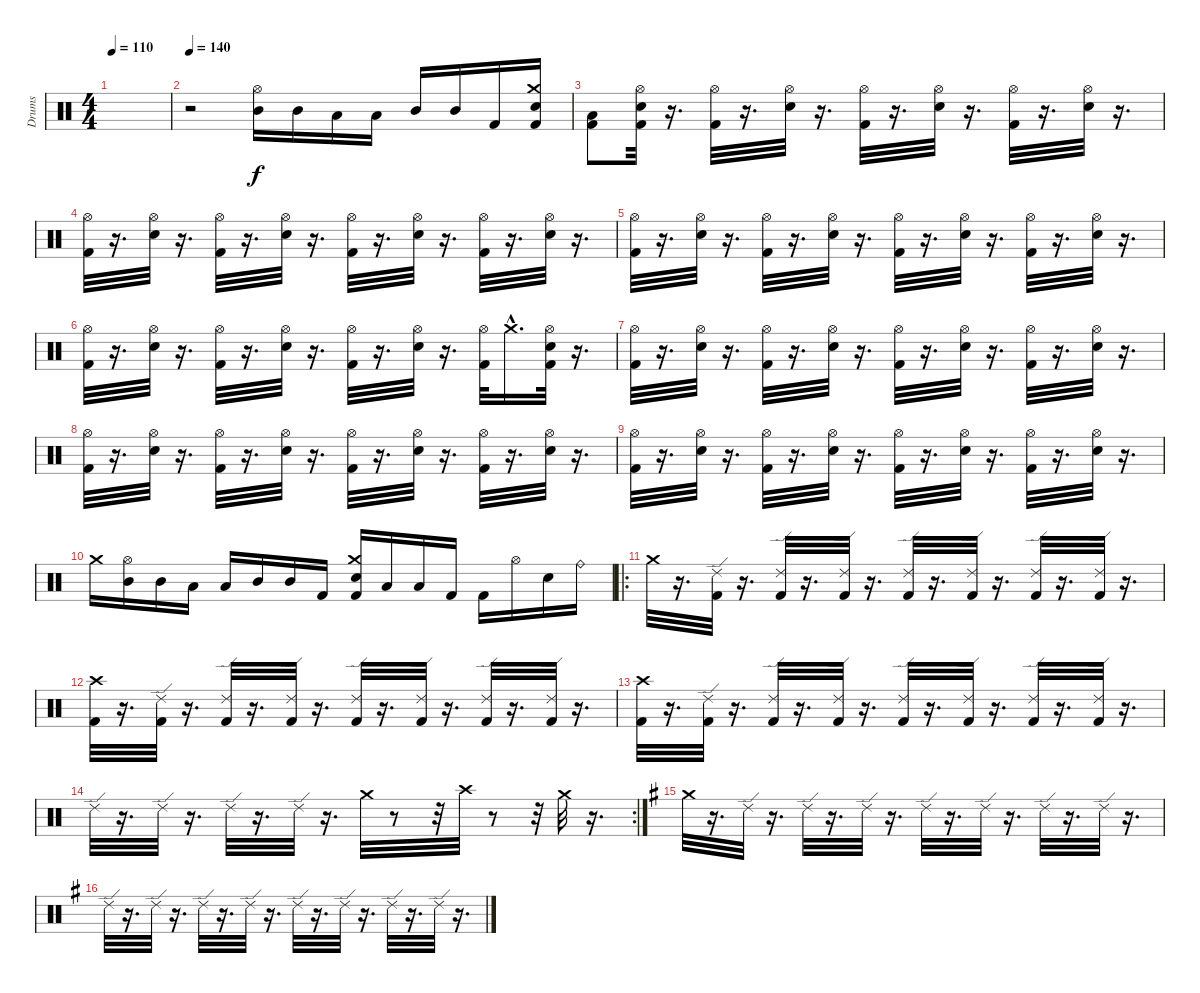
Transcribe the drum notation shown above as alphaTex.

\track ("Drums" "Drums") {instrument percussion}
\staff {score}
\articulation defaults
\ts (4 4)
\tempo 110
\clef neutral
\ks c
|
\tempo 140
r.2 ("Hi-Hat (open)" "Mid Tom (hit)").16 "Mid Tom (hit)".16 "Low Tom (hit)".16 "Low Tom (hit)".16 "Mid Tom (hit)".16 "Mid Tom (hit)".16 "Kick (hit) 2".16 ("Crash medium (hit)" "Electric Snare (hit)" "Kick (hit) 2").16 |
("Kick (hit) 2" "Low Tom (hit)").8 ("Hi-Hat (open)" "Kick (hit) 2" "Electric Snare (hit)").32 r.16{d} ("Hi-Hat (open)" "Kick (hit) 2").32 r.16{d} ("Hi-Hat (open)" "Electric Snare (hit)").32 r.16{d} ("Hi-Hat (open)" "Kick (hit) 2").32 r.16{d} ("Hi-Hat (open)" "Electric Snare (hit)").32 r.16{d} ("Hi-Hat (open)" "Kick (hit) 2").32 r.16{d} ("Hi-Hat (open)" "Electric Snare (hit)").32 r.16{d} |
("Hi-Hat (open)" "Kick (hit) 2").32 r.16{d} ("Hi-Hat (open)" "Electric Snare (hit)").32 r.16{d} ("Hi-Hat (open)" "Kick (hit) 2").32 r.16{d} ("Hi-Hat (open)" "Electric Snare (hit)").32 r.16{d} ("Hi-Hat (open)" "Kick (hit) 2").32 r.16{d} ("Hi-Hat (open)" "Electric Snare (hit)").32 r.16{d} ("Hi-Hat (open)" "Kick (hit) 2").32 r.16{d} ("Hi-Hat (open)" "Electric Snare (hit)").32 r.16{d} |
("Hi-Hat (open)" "Kick (hit) 2").32 r.16{d} ("Hi-Hat (open)" "Electric Snare (hit)").32 r.16{d} ("Hi-Hat (open)" "Kick (hit) 2").32 r.16{d} ("Hi-Hat (open)" "Electric Snare (hit)").32 r.16{d} ("Hi-Hat (open)" "Kick (hit) 2").32 r.16{d} ("Hi-Hat (open)" "Electric Snare (hit)").32 r.16{d} ("Hi-Hat (open)" "Kick (hit) 2").32 r.16{d} ("Hi-Hat (open)" "Electric Snare (hit)").32 r.16{d} |
("Hi-Hat (open)" "Kick (hit) 2").32 r.16{d} ("Hi-Hat (open)" "Electric Snare (hit)").32 r.16{d} ("Hi-Hat (open)" "Kick (hit) 2").32 r.16{d} ("Hi-Hat (open)" "Electric Snare (hit)").32 r.16{d} ("Hi-Hat (open)" "Kick (hit) 2").32 r.16{d} ("Hi-Hat (open)" "Electric Snare (hit)").32 r.16{d} ("Hi-Hat (open)" "Kick (hit) 2").32 "Crash medium (hit)"{hac}.16{d} ("Hi-Hat (open)" "Kick (hit) 2" "Electric Snare (hit)").32 r.16{d} |
("Hi-Hat (open)" "Kick (hit) 2").32 r.16{d} ("Hi-Hat (open)" "Electric Snare (hit)").32 r.16{d} ("Hi-Hat (open)" "Kick (hit) 2").32 r.16{d} ("Hi-Hat (open)" "Electric Snare (hit)").32 r.16{d} ("Hi-Hat (open)" "Kick (hit) 2").32 r.16{d} ("Hi-Hat (open)" "Electric Snare (hit)").32 r.16{d} ("Hi-Hat (open)" "Kick (hit) 2").32 r.16{d} ("Hi-Hat (open)" "Electric Snare (hit)").32 r.16{d} |
("Hi-Hat (open)" "Kick (hit) 2").32 r.16{d} ("Hi-Hat (open)" "Electric Snare (hit)").32 r.16{d} ("Hi-Hat (open)" "Kick (hit) 2").32 r.16{d} ("Hi-Hat (open)" "Electric Snare (hit)").32 r.16{d} ("Hi-Hat (open)" "Kick (hit) 2").32 r.16{d} ("Hi-Hat (open)" "Electric Snare (hit)").32 r.16{d} ("Hi-Hat (open)" "Kick (hit) 2").32 r.16{d} ("Hi-Hat (open)" "Electric Snare (hit)").32 r.16{d} |
("Hi-Hat (open)" "Kick (hit) 2").32 r.16{d} ("Hi-Hat (open)" "Electric Snare (hit)").32 r.16{d} ("Hi-Hat (open)" "Kick (hit) 2").32 r.16{d} ("Hi-Hat (open)" "Electric Snare (hit)").32 r.16{d} ("Hi-Hat (open)" "Kick (hit) 2").32 r.16{d} ("Hi-Hat (open)" "Electric Snare (hit)").32 r.16{d} ("Hi-Hat (open)" "Kick (hit) 2").32 r.16{d} ("Hi-Hat (open)" "Electric Snare (hit)").32 r.16{d} |
"Crash medium (hit)".16 ("Hi-Hat (open)" "Mid Tom (hit)").16 "Mid Tom (hit)".16 "Low Tom (hit)".16 "Low Tom (hit)".16 "Mid Tom (hit)".16 "Mid Tom (hit)".16 "Kick (hit) 2".16 ("Crash medium (hit)" "Electric Snare (hit)" "Kick (hit) 2").16 "Low Tom (hit)".16 "Low Tom (hit)".16 "Kick (hit) 2".16 "Kick (hit) 2".16 "Hi-Hat (open)".16 "Electric Snare (hit)".16 "Ride (bell)".16 |
\ro "Crash medium (hit)".32
r.16{d} ("Ride (edge) 2" "Kick (hit) 2").32 r.16{d} ("Ride (edge) 2" "Kick (hit) 2").32 r.16{d} ("Ride (edge) 2" "Kick (hit) 2").32 r.16{d} ("Ride (edge) 2" "Kick (hit) 2").32 r.16{d} ("Ride (edge) 2" "Kick (hit) 2").32 r.16{d} ("Ride (edge) 2" "Kick (hit) 2").32 r.16{d} ("Ride (edge) 2" "Kick (hit) 2").32 r.16{d} |
("Crash high (hit)" "Kick (hit) 2").32 r.16{d} ("Ride (edge) 2" "Kick (hit) 2").32 r.16{d} ("Ride (edge) 2" "Kick (hit) 2").32 r.16{d} ("Ride (edge) 2" "Kick (hit) 2").32 r.16{d} ("Ride (edge) 2" "Kick (hit) 2").32 r.16{d} ("Ride (edge) 2" "Kick (hit) 2").32 r.16{d} ("Ride (edge) 2" "Kick (hit) 2").32 r.16{d} ("Ride (edge) 2" "Kick (hit) 2").32 r.16{d} |
("Crash high (hit)" "Kick (hit) 2").32 r.16{d} ("Ride (edge) 2" "Kick (hit) 2").32 r.16{d} ("Ride (edge) 2" "Kick (hit) 2").32 r.16{d} ("Ride (edge) 2" "Kick (hit) 2").32 r.16{d} ("Ride (edge) 2" "Kick (hit) 2").32 r.16{d} ("Ride (edge) 2" "Kick (hit) 2").32 r.16{d} ("Ride (edge) 2" "Kick (hit) 2").32 r.16{d} ("Ride (edge) 2" "Kick (hit) 2").32 r.16{d} |
\rc 2 "Ride (edge) 2".32
r.16{d} "Ride (edge) 2".32 r.16{d} "Ride (edge) 2".32 r.16{d} "Ride (edge) 2".32 r.16{d} "Crash medium (hit)".32 r.8 r.32 "Crash high (hit)".32 r.8 r.32 "Crash medium (hit)".32 r.16{d} |
\ks eminor "Crash medium (hit)".32
r.16{d} "Ride (edge) 2".32 r.16{d} "Ride (edge) 2".32 r.16{d} "Ride (edge) 2".32 r.16{d} "Ride (edge) 2".32 r.16{d} "Ride (edge) 2".32 r.16{d} "Ride (edge) 2".32 r.16{d} "Ride (edge) 2".32 r.16{d} |
"Ride (edge) 2".32 r.16{d} "Ride (edge) 2".32 r.16{d} "Ride (edge) 2".32 r.16{d} "Ride (edge) 2".32 r.16{d} "Ride (edge) 2".32 r.16{d} "Ride (edge) 2".32 r.16{d} "Ride (edge) 2".32 r.16{d} "Ride (edge) 2".32 r.16{d}
